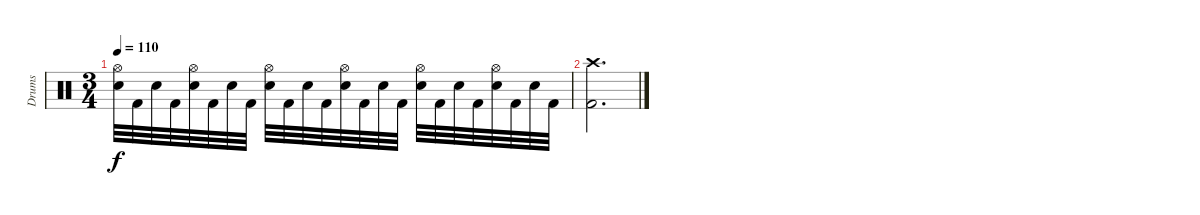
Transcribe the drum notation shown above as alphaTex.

\track ("Drums" "Drums") {instrument percussion}
\staff {score}
\articulation defaults
\ts (3 4)
\tempo 110
\clef neutral
\ks c
("Hi-Hat (open)" "Electric Snare (hit)").32{dy f} "Kick (hit) 2".32 "Electric Snare (hit)".32 "Kick (hit) 2".32 ("Hi-Hat (open)" "Electric Snare (hit)").32 "Kick (hit) 2".32 "Electric Snare (hit)".32 "Kick (hit) 2".32 ("Hi-Hat (open)" "Electric Snare (hit)").32 "Kick (hit) 2".32 "Electric Snare (hit)".32 "Kick (hit) 2".32 ("Hi-Hat (open)" "Electric Snare (hit)").32 "Kick (hit) 2".32 "Electric Snare (hit)".32 "Kick (hit) 2".32 ("Hi-Hat (open)" "Electric Snare (hit)").32 "Kick (hit) 2".32 "Electric Snare (hit)".32 "Kick (hit) 2".32 ("Hi-Hat (open)" "Electric Snare (hit)").32 "Kick (hit) 2".32 "Electric Snare (hit)".32 "Kick (hit) 2".32 |
("Crash high (hit)" "Kick (hit) 2").2{d}
